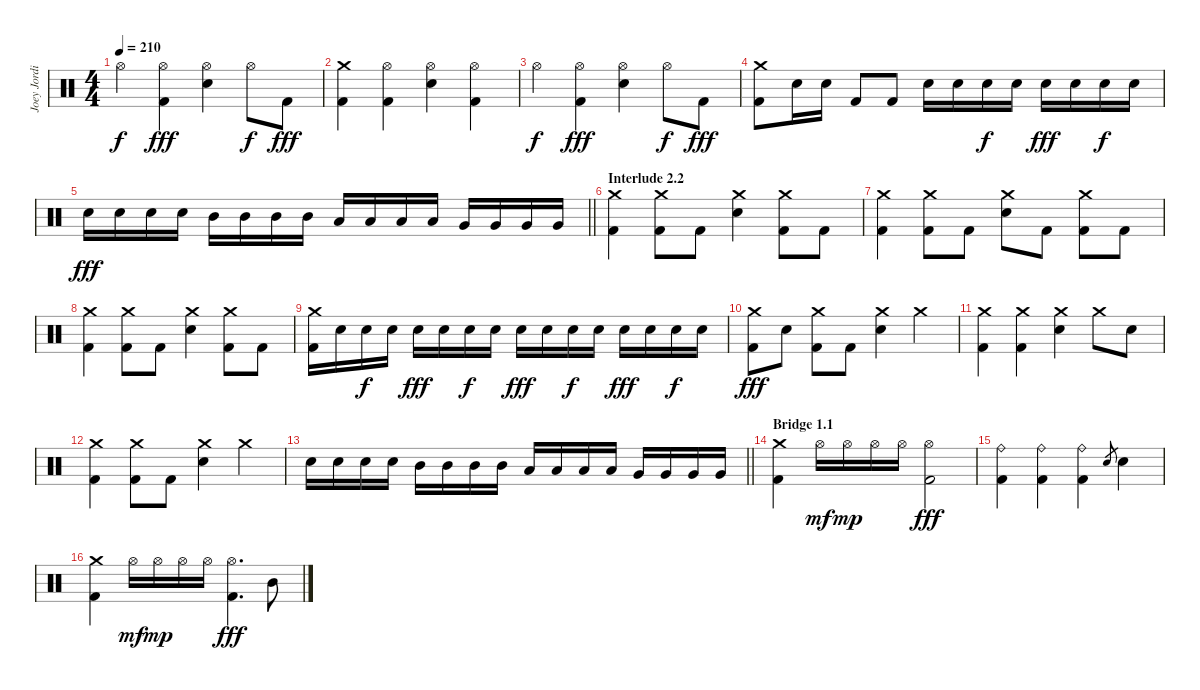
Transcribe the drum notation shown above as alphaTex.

\track ("Joey Jordison" "Joey Jordi") {instrument percussion}
\staff {score}
\articulation defaults
\ts (4 4)
\tempo 210
\clef neutral
\ks c "Hi-Hat (open)".4{dy f}
("Hi-Hat (open)" "Kick (hit) 2").4{dy fff} ("Hi-Hat (open)" "Electric Snare (hit)").4 "Hi-Hat (open)".8{dy f} "Kick (hit) 2".8{dy fff} |
("Crash medium (hit)" "Kick (hit) 2").4 ("Hi-Hat (open)" "Kick (hit) 2").4 ("Hi-Hat (open)" "Electric Snare (hit)").4 ("Hi-Hat (open)" "Kick (hit) 2").4 |
"Hi-Hat (open)".4{dy f} ("Hi-Hat (open)" "Kick (hit) 2").4{dy fff} ("Hi-Hat (open)" "Electric Snare (hit)").4 "Hi-Hat (open)".8{dy f} "Kick (hit) 2".8{dy fff} |
("Crash medium (hit)" "Kick (hit) 2").8 "Electric Snare (hit)".16 "Electric Snare (hit)".16 "Kick (hit) 2".8 "Kick (hit) 2".8 "Electric Snare (hit)".16 "Electric Snare (hit)".16 "Electric Snare (hit)".16{dy f} "Electric Snare (hit)".16 "Electric Snare (hit)".16{dy fff} "Electric Snare (hit)".16 "Electric Snare (hit)".16{dy f} "Electric Snare (hit)".16 |
\barLineRight lightlight "Electric Snare (hit)".16{dy fff} "Electric Snare (hit)".16 "Electric Snare (hit)".16 "Electric Snare (hit)".16 "Mid Tom (hit)".16 "Mid Tom (hit)".16 "Mid Tom (hit)".16 "Mid Tom (hit)".16 "Low Tom (hit)".16 "Low Tom (hit)".16 "Low Tom (hit)".16 "Low Tom (hit)".16 "Very Low Tom (hit)".16 "Very Low Tom (hit)".16 "Very Low Tom (hit)".16 "Very Low Tom (hit)".16
|
\section ("" "Interlude 2.2")
("Crash medium (hit)" "Kick (hit) 2").4 ("Crash medium (hit)" "Kick (hit) 2").8 "Kick (hit) 2".8 ("Crash medium (hit)" "Electric Snare (hit)").4 ("Crash medium (hit)" "Kick (hit) 2").8 "Kick (hit) 2".8 |
("Crash medium (hit)" "Kick (hit) 2").4 ("Crash medium (hit)" "Kick (hit) 2").8 "Kick (hit) 2".8 ("Crash medium (hit)" "Electric Snare (hit)").8 "Kick (hit) 2".8 ("Crash medium (hit)" "Kick (hit) 2").8 "Kick (hit) 2".8 |
("Crash medium (hit)" "Kick (hit) 2").4 ("Crash medium (hit)" "Kick (hit) 2").8 "Kick (hit) 2".8 ("Crash medium (hit)" "Electric Snare (hit)").4 ("Crash medium (hit)" "Kick (hit) 2").8 "Kick (hit) 2".8 |
("Crash medium (hit)" "Kick (hit) 2").16 "Electric Snare (hit)".16 "Electric Snare (hit)".16{dy f} "Electric Snare (hit)".16 "Electric Snare (hit)".16{dy fff} "Electric Snare (hit)".16 "Electric Snare (hit)".16{dy f} "Electric Snare (hit)".16 "Electric Snare (hit)".16{dy fff} "Electric Snare (hit)".16 "Electric Snare (hit)".16{dy f} "Electric Snare (hit)".16 "Electric Snare (hit)".16{dy fff} "Electric Snare (hit)".16 "Electric Snare (hit)".16{dy f} "Electric Snare (hit)".16 |
("Crash medium (hit)" "Kick (hit) 2").8{dy fff} "Electric Snare (hit)".8 ("Crash medium (hit)" "Kick (hit) 2").8 "Kick (hit) 2".8 ("Crash medium (hit)" "Electric Snare (hit)").4 "Crash medium (hit)".4 |
("Crash medium (hit)" "Kick (hit) 2").4 ("Crash medium (hit)" "Kick (hit) 2").4 ("Crash medium (hit)" "Electric Snare (hit)").4 "Crash medium (hit)".8 "Electric Snare (hit)".8 |
("Crash medium (hit)" "Kick (hit) 2").4 ("Crash medium (hit)" "Kick (hit) 2").8 "Kick (hit) 2".8 ("Crash medium (hit)" "Electric Snare (hit)").4 "Crash medium (hit)".4 |
\barLineRight lightlight "Electric Snare (hit)".16 "Electric Snare (hit)".16 "Electric Snare (hit)".16 "Electric Snare (hit)".16 "Mid Tom (hit)".16 "Mid Tom (hit)".16 "Mid Tom (hit)".16 "Mid Tom (hit)".16 "Low Tom (hit)".16 "Low Tom (hit)".16 "Low Tom (hit)".16 "Low Tom (hit)".16 "Very Low Tom (hit)".16 "Very Low Tom (hit)".16 "Very Low Tom (hit)".16 "Very Low Tom (hit)".16
|
\section ("" "Bridge 1.1")
("Crash medium (hit)" "Kick (hit) 2").4 "Hi-Hat (open)".16{dy mf} "Hi-Hat (open)".16{dy mp} "Hi-Hat (open)".16 "Hi-Hat (open)".16 ("Hi-Hat (open)" "Kick (hit) 2").2{dy fff} |
("Ride (bell)" "Kick (hit) 2").4 ("Ride (bell)" "Kick (hit) 2").4 ("Ride (bell)" "Kick (hit) 2").4 "Electric Snare (hit)".8{gr} "Electric Snare (hit)".4 |
("Crash medium (hit)" "Kick (hit) 2").4 "Hi-Hat (open)".16{dy mf} "Hi-Hat (open)".16{dy mp} "Hi-Hat (open)".16 "Hi-Hat (open)".16 ("Hi-Hat (open)" "Kick (hit) 2").4{d dy fff} "Mid Tom (hit)".8
